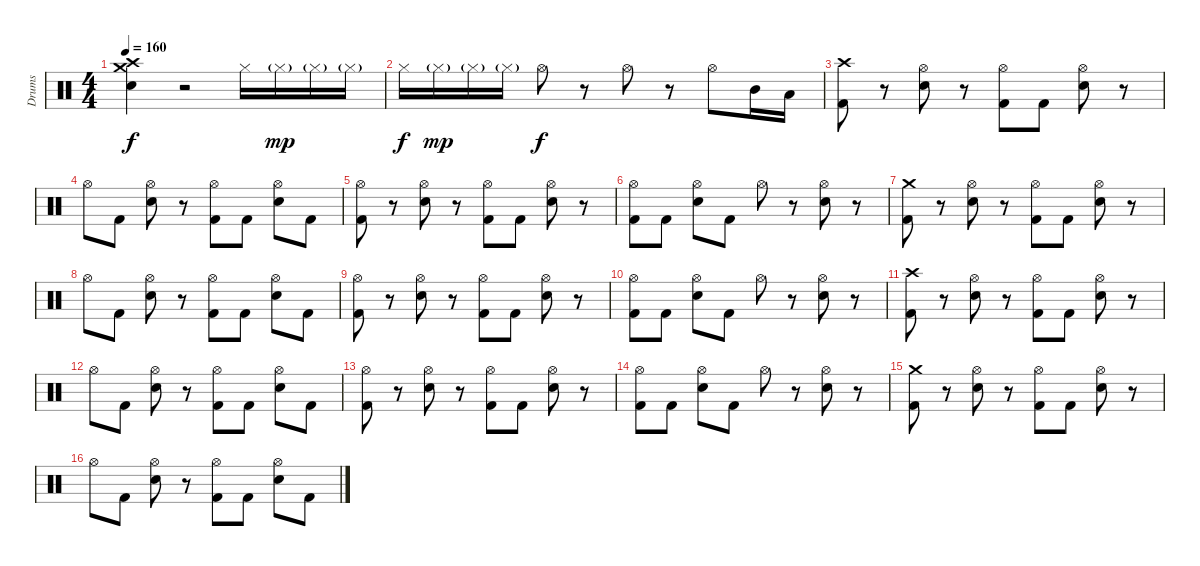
\track ("Drums" "Drums") {instrument percussion}
\staff {score}
\articulation defaults
\ts (4 4)
\tempo 160
\clef neutral
\ks c
("Crash medium (hit)" "Crash high (hit)" "Snare (hit) 2").4{dy f} r.2 "Hi-Hat (closed)".16 "Hi-Hat (closed)"{g}.16{dy mp} "Hi-Hat (closed)"{g}.16 "Hi-Hat (closed)"{g}.16 |
"Hi-Hat (closed)".16{dy f} "Hi-Hat (closed)"{g}.16{dy mp} "Hi-Hat (closed)"{g}.16 "Hi-Hat (closed)"{g}.16 "Hi-Hat (open)".8{dy f} r.8 "Hi-Hat (open)".8 r.8 "Hi-Hat (open)".8 "Mid Tom (hit)".16 "Low Tom (hit)".16 |
("Crash high (hit)" "Kick (hit) 2").8 r.8 ("Hi-Hat (open)" "Snare (hit) 2").8 r.8 ("Hi-Hat (open)" "Kick (hit) 2").8 "Kick (hit) 2".8 ("Hi-Hat (open)" "Snare (hit) 2").8 r.8 |
"Hi-Hat (open)".8 "Kick (hit) 2".8 ("Hi-Hat (open)" "Snare (hit) 2").8 r.8 ("Hi-Hat (open)" "Kick (hit) 2").8 "Kick (hit) 2".8 ("Hi-Hat (open)" "Snare (hit) 2").8 "Kick (hit) 2".8 |
("Hi-Hat (open)" "Kick (hit) 2").8 r.8 ("Hi-Hat (open)" "Snare (hit) 2").8 r.8 ("Hi-Hat (open)" "Kick (hit) 2").8 "Kick (hit) 2".8 ("Hi-Hat (open)" "Snare (hit) 2").8 r.8 |
("Hi-Hat (open)" "Kick (hit) 2").8 "Kick (hit) 2".8 ("Hi-Hat (open)" "Snare (hit) 2").8 "Kick (hit) 2".8 "Hi-Hat (open)".8 r.8 ("Hi-Hat (open)" "Snare (hit) 2").8 r.8 |
("Crash medium (hit)" "Kick (hit) 2").8 r.8 ("Hi-Hat (open)" "Snare (hit) 2").8 r.8 ("Hi-Hat (open)" "Kick (hit) 2").8 "Kick (hit) 2".8 ("Hi-Hat (open)" "Snare (hit) 2").8 r.8 |
"Hi-Hat (open)".8 "Kick (hit) 2".8 ("Hi-Hat (open)" "Snare (hit) 2").8 r.8 ("Hi-Hat (open)" "Kick (hit) 2").8 "Kick (hit) 2".8 ("Hi-Hat (open)" "Snare (hit) 2").8 "Kick (hit) 2".8 |
("Hi-Hat (open)" "Kick (hit) 2").8 r.8 ("Hi-Hat (open)" "Snare (hit) 2").8 r.8 ("Hi-Hat (open)" "Kick (hit) 2").8 "Kick (hit) 2".8 ("Hi-Hat (open)" "Snare (hit) 2").8 r.8 |
("Hi-Hat (open)" "Kick (hit) 2").8 "Kick (hit) 2".8 ("Hi-Hat (open)" "Snare (hit) 2").8 "Kick (hit) 2".8 "Hi-Hat (open)".8 r.8 ("Hi-Hat (open)" "Snare (hit) 2").8 r.8 |
("Crash high (hit)" "Kick (hit) 2").8 r.8 ("Hi-Hat (open)" "Snare (hit) 2").8 r.8 ("Hi-Hat (open)" "Kick (hit) 2").8 "Kick (hit) 2".8 ("Hi-Hat (open)" "Snare (hit) 2").8 r.8 |
"Hi-Hat (open)".8 "Kick (hit) 2".8 ("Hi-Hat (open)" "Snare (hit) 2").8 r.8 ("Hi-Hat (open)" "Kick (hit) 2").8 "Kick (hit) 2".8 ("Hi-Hat (open)" "Snare (hit) 2").8 "Kick (hit) 2".8 |
("Hi-Hat (open)" "Kick (hit) 2").8 r.8 ("Hi-Hat (open)" "Snare (hit) 2").8 r.8 ("Hi-Hat (open)" "Kick (hit) 2").8 "Kick (hit) 2".8 ("Hi-Hat (open)" "Snare (hit) 2").8 r.8 |
("Hi-Hat (open)" "Kick (hit) 2").8 "Kick (hit) 2".8 ("Hi-Hat (open)" "Snare (hit) 2").8 "Kick (hit) 2".8 "Hi-Hat (open)".8 r.8 ("Hi-Hat (open)" "Snare (hit) 2").8 r.8 |
("Crash medium (hit)" "Kick (hit) 2").8 r.8 ("Hi-Hat (open)" "Snare (hit) 2").8 r.8 ("Hi-Hat (open)" "Kick (hit) 2").8 "Kick (hit) 2".8 ("Hi-Hat (open)" "Snare (hit) 2").8 r.8 |
"Hi-Hat (open)".8 "Kick (hit) 2".8 ("Hi-Hat (open)" "Snare (hit) 2").8 r.8 ("Hi-Hat (open)" "Kick (hit) 2").8 "Kick (hit) 2".8 ("Hi-Hat (open)" "Snare (hit) 2").8 "Kick (hit) 2".8
